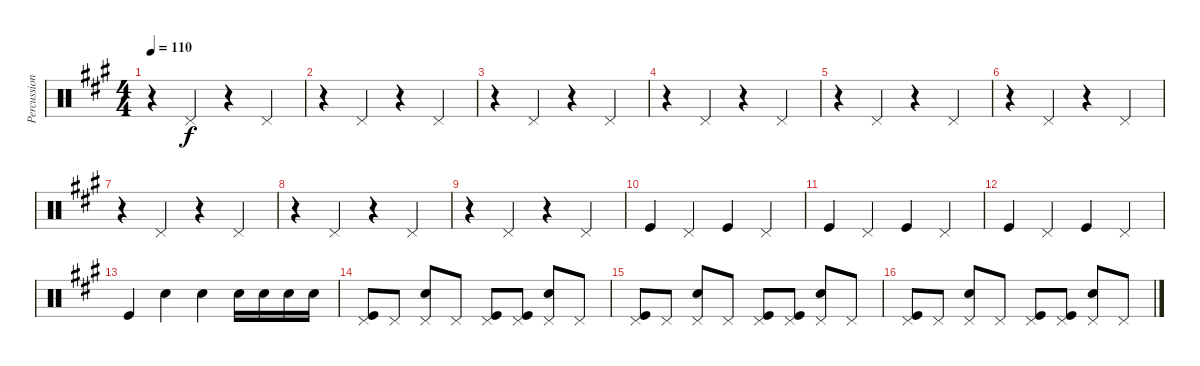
\track ("Percussion" "Percussion") {instrument percussion}
\staff {score}
\articulation defaults
\ts (4 4)
\tempo 110
\clef neutral
\ks a
r.4{dy f} "Pedal Hi-Hat (hit)".4 r.4 "Pedal Hi-Hat (hit)".4 |
r.4 "Pedal Hi-Hat (hit)".4 r.4 "Pedal Hi-Hat (hit)".4 |
r.4 "Pedal Hi-Hat (hit)".4 r.4 "Pedal Hi-Hat (hit)".4 |
r.4 "Pedal Hi-Hat (hit)".4 r.4 "Pedal Hi-Hat (hit)".4 |
r.4 "Pedal Hi-Hat (hit)".4 r.4 "Pedal Hi-Hat (hit)".4 |
r.4 "Pedal Hi-Hat (hit)".4 r.4 "Pedal Hi-Hat (hit)".4 |
r.4 "Pedal Hi-Hat (hit)".4 r.4 "Pedal Hi-Hat (hit)".4 |
r.4 "Pedal Hi-Hat (hit)".4 r.4 "Pedal Hi-Hat (hit)".4 |
r.4 "Pedal Hi-Hat (hit)".4 r.4 "Pedal Hi-Hat (hit)".4 |
"Kick (hit)".4 "Pedal Hi-Hat (hit)".4 "Kick (hit)".4 "Pedal Hi-Hat (hit)".4 |
"Kick (hit)".4 "Pedal Hi-Hat (hit)".4 "Kick (hit)".4 "Pedal Hi-Hat (hit)".4 |
"Kick (hit)".4 "Pedal Hi-Hat (hit)".4 "Kick (hit)".4 "Pedal Hi-Hat (hit)".4 |
"Kick (hit)".4 "Snare (hit) 2".4 "Snare (hit) 2".4 "Snare (hit) 2".16 "Snare (hit) 2".16 "Snare (hit) 2".16 "Snare (hit) 2".16 |
("Pedal Hi-Hat (hit)" "Kick (hit)").8 "Pedal Hi-Hat (hit)".8 ("Pedal Hi-Hat (hit)" "Snare (hit) 2").8 "Pedal Hi-Hat (hit)".8 ("Pedal Hi-Hat (hit)" "Kick (hit)").8 ("Pedal Hi-Hat (hit)" "Kick (hit)").8 ("Pedal Hi-Hat (hit)" "Snare (hit) 2").8 "Pedal Hi-Hat (hit)".8 |
("Pedal Hi-Hat (hit)" "Kick (hit)").8 "Pedal Hi-Hat (hit)".8 ("Pedal Hi-Hat (hit)" "Snare (hit) 2").8 "Pedal Hi-Hat (hit)".8 ("Pedal Hi-Hat (hit)" "Kick (hit)").8 ("Pedal Hi-Hat (hit)" "Kick (hit)").8 ("Pedal Hi-Hat (hit)" "Snare (hit) 2").8 "Pedal Hi-Hat (hit)".8 |
("Pedal Hi-Hat (hit)" "Kick (hit)").8 "Pedal Hi-Hat (hit)".8 ("Pedal Hi-Hat (hit)" "Snare (hit) 2").8 "Pedal Hi-Hat (hit)".8 ("Pedal Hi-Hat (hit)" "Kick (hit)").8 ("Pedal Hi-Hat (hit)" "Kick (hit)").8 ("Pedal Hi-Hat (hit)" "Snare (hit) 2").8 "Pedal Hi-Hat (hit)".8
